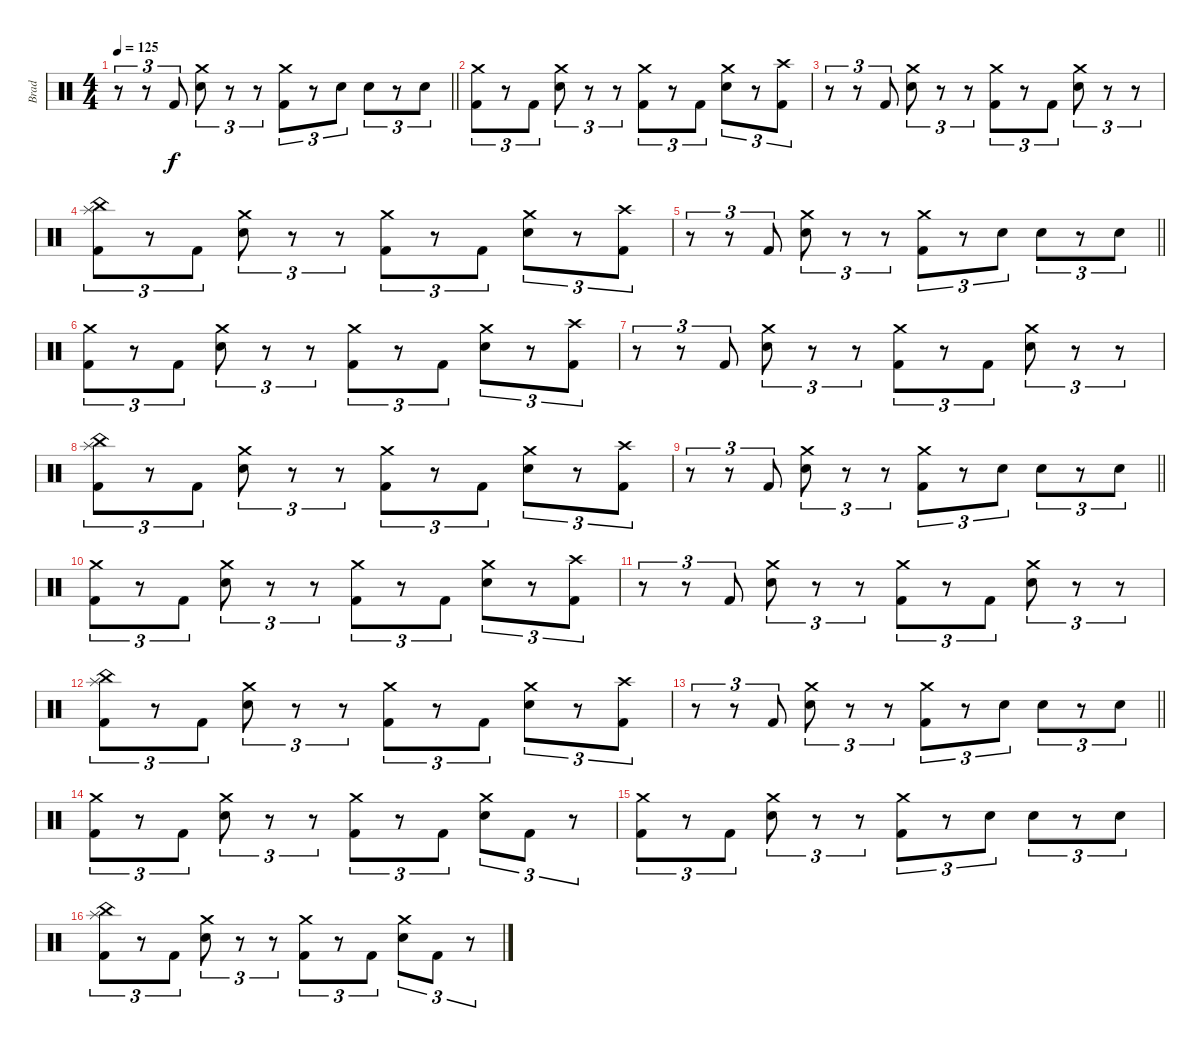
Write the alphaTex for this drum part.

\track ("Brad" "Brad") {instrument percussion}
\staff {score}
\articulation defaults
\ts (4 4)
\tempo 125
\clef neutral
\barLineRight lightlight
\ks c
r.8{tu (3 2) dy f} r.8{tu (3 2)} "Kick (hit) 2".8{tu (3 2)} ("Crash medium (hit)" "Electric Snare (hit)").8{tu (3 2)} r.8{tu (3 2)} r.8{tu (3 2)} ("Crash medium (hit)" "Kick (hit) 2").8{tu (3 2)} r.8{tu (3 2)} "Electric Snare (hit)".8{tu (3 2)} "Electric Snare (hit)".8{tu (3 2)} r.8{tu (3 2)} "Electric Snare (hit)".8{tu (3 2)} |
("Crash medium (hit)" "Kick (hit) 2").8{tu (3 2)} r.8{tu (3 2)} "Kick (hit) 2".8{tu (3 2)} ("Crash medium (hit)" "Electric Snare (hit)").8{tu (3 2)} r.8{tu (3 2)} r.8{tu (3 2)} ("Crash medium (hit)" "Kick (hit) 2").8{tu (3 2)} r.8{tu (3 2)} "Kick (hit) 2".8{tu (3 2)} ("Crash medium (hit)" "Electric Snare (hit)").8{tu (3 2)} r.8{tu (3 2)} ("Crash high (hit)" "Kick (hit) 2").8{tu (3 2)} |
r.8{tu (3 2)} r.8{tu (3 2)} "Kick (hit) 2".8{tu (3 2)} ("Crash medium (hit)" "Electric Snare (hit)").8{tu (3 2)} r.8{tu (3 2)} r.8{tu (3 2)} ("Crash medium (hit)" "Kick (hit) 2").8{tu (3 2)} r.8{tu (3 2)} "Kick (hit) 2".8{tu (3 2)} ("Crash medium (hit)" "Electric Snare (hit)").8{tu (3 2)} r.8{tu (3 2)} r.8{tu (3 2)} |
("Splash (hit)" "China (hit)" "Kick (hit) 2").8{tu (3 2)} r.8{tu (3 2)} "Kick (hit) 2".8{tu (3 2)} ("Crash medium (hit)" "Electric Snare (hit)").8{tu (3 2)} r.8{tu (3 2)} r.8{tu (3 2)} ("Crash medium (hit)" "Kick (hit) 2").8{tu (3 2)} r.8{tu (3 2)} "Kick (hit) 2".8{tu (3 2)} ("Crash medium (hit)" "Electric Snare (hit)").8{tu (3 2)} r.8{tu (3 2)} ("Crash high (hit)" "Kick (hit) 2").8{tu (3 2)} |
\barLineRight lightlight
r.8{tu (3 2)} r.8{tu (3 2)} "Kick (hit) 2".8{tu (3 2)} ("Crash medium (hit)" "Electric Snare (hit)").8{tu (3 2)} r.8{tu (3 2)} r.8{tu (3 2)} ("Crash medium (hit)" "Kick (hit) 2").8{tu (3 2)} r.8{tu (3 2)} "Electric Snare (hit)".8{tu (3 2)} "Electric Snare (hit)".8{tu (3 2)} r.8{tu (3 2)} "Electric Snare (hit)".8{tu (3 2)} |
("Crash medium (hit)" "Kick (hit) 2").8{tu (3 2)} r.8{tu (3 2)} "Kick (hit) 2".8{tu (3 2)} ("Crash medium (hit)" "Electric Snare (hit)").8{tu (3 2)} r.8{tu (3 2)} r.8{tu (3 2)} ("Crash medium (hit)" "Kick (hit) 2").8{tu (3 2)} r.8{tu (3 2)} "Kick (hit) 2".8{tu (3 2)} ("Crash medium (hit)" "Electric Snare (hit)").8{tu (3 2)} r.8{tu (3 2)} ("Crash high (hit)" "Kick (hit) 2").8{tu (3 2)} |
r.8{tu (3 2)} r.8{tu (3 2)} "Kick (hit) 2".8{tu (3 2)} ("Crash medium (hit)" "Electric Snare (hit)").8{tu (3 2)} r.8{tu (3 2)} r.8{tu (3 2)} ("Crash medium (hit)" "Kick (hit) 2").8{tu (3 2)} r.8{tu (3 2)} "Kick (hit) 2".8{tu (3 2)} ("Crash medium (hit)" "Electric Snare (hit)").8{tu (3 2)} r.8{tu (3 2)} r.8{tu (3 2)} |
("Splash (hit)" "China (hit)" "Kick (hit) 2").8{tu (3 2)} r.8{tu (3 2)} "Kick (hit) 2".8{tu (3 2)} ("Crash medium (hit)" "Electric Snare (hit)").8{tu (3 2)} r.8{tu (3 2)} r.8{tu (3 2)} ("Crash medium (hit)" "Kick (hit) 2").8{tu (3 2)} r.8{tu (3 2)} "Kick (hit) 2".8{tu (3 2)} ("Crash medium (hit)" "Electric Snare (hit)").8{tu (3 2)} r.8{tu (3 2)} ("Crash high (hit)" "Kick (hit) 2").8{tu (3 2)} |
\barLineRight lightlight
r.8{tu (3 2)} r.8{tu (3 2)} "Kick (hit) 2".8{tu (3 2)} ("Crash medium (hit)" "Electric Snare (hit)").8{tu (3 2)} r.8{tu (3 2)} r.8{tu (3 2)} ("Crash medium (hit)" "Kick (hit) 2").8{tu (3 2)} r.8{tu (3 2)} "Electric Snare (hit)".8{tu (3 2)} "Electric Snare (hit)".8{tu (3 2)} r.8{tu (3 2)} "Electric Snare (hit)".8{tu (3 2)} |
("Crash medium (hit)" "Kick (hit) 2").8{tu (3 2)} r.8{tu (3 2)} "Kick (hit) 2".8{tu (3 2)} ("Crash medium (hit)" "Electric Snare (hit)").8{tu (3 2)} r.8{tu (3 2)} r.8{tu (3 2)} ("Crash medium (hit)" "Kick (hit) 2").8{tu (3 2)} r.8{tu (3 2)} "Kick (hit) 2".8{tu (3 2)} ("Crash medium (hit)" "Electric Snare (hit)").8{tu (3 2)} r.8{tu (3 2)} ("Crash high (hit)" "Kick (hit) 2").8{tu (3 2)} |
r.8{tu (3 2)} r.8{tu (3 2)} "Kick (hit) 2".8{tu (3 2)} ("Crash medium (hit)" "Electric Snare (hit)").8{tu (3 2)} r.8{tu (3 2)} r.8{tu (3 2)} ("Crash medium (hit)" "Kick (hit) 2").8{tu (3 2)} r.8{tu (3 2)} "Kick (hit) 2".8{tu (3 2)} ("Crash medium (hit)" "Electric Snare (hit)").8{tu (3 2)} r.8{tu (3 2)} r.8{tu (3 2)} |
("Splash (hit)" "China (hit)" "Kick (hit) 2").8{tu (3 2)} r.8{tu (3 2)} "Kick (hit) 2".8{tu (3 2)} ("Crash medium (hit)" "Electric Snare (hit)").8{tu (3 2)} r.8{tu (3 2)} r.8{tu (3 2)} ("Crash medium (hit)" "Kick (hit) 2").8{tu (3 2)} r.8{tu (3 2)} "Kick (hit) 2".8{tu (3 2)} ("Crash medium (hit)" "Electric Snare (hit)").8{tu (3 2)} r.8{tu (3 2)} ("Crash high (hit)" "Kick (hit) 2").8{tu (3 2)} |
\barLineRight lightlight
r.8{tu (3 2)} r.8{tu (3 2)} "Kick (hit) 2".8{tu (3 2)} ("Crash medium (hit)" "Electric Snare (hit)").8{tu (3 2)} r.8{tu (3 2)} r.8{tu (3 2)} ("Crash medium (hit)" "Kick (hit) 2").8{tu (3 2)} r.8{tu (3 2)} "Electric Snare (hit)".8{tu (3 2)} "Electric Snare (hit)".8{tu (3 2)} r.8{tu (3 2)} "Electric Snare (hit)".8{tu (3 2)} |
("Crash medium (hit)" "Kick (hit) 2").8{tu (3 2)} r.8{tu (3 2)} "Kick (hit) 2".8{tu (3 2)} ("Crash medium (hit)" "Electric Snare (hit)").8{tu (3 2)} r.8{tu (3 2)} r.8{tu (3 2)} ("Crash medium (hit)" "Kick (hit) 2").8{tu (3 2)} r.8{tu (3 2)} "Kick (hit) 2".8{tu (3 2)} ("Crash medium (hit)" "Electric Snare (hit)").8{tu (3 2)} "Kick (hit) 2".8{tu (3 2)} r.8{tu (3 2)} |
("Crash medium (hit)" "Kick (hit) 2").8{tu (3 2)} r.8{tu (3 2)} "Kick (hit) 2".8{tu (3 2)} ("Crash medium (hit)" "Electric Snare (hit)").8{tu (3 2)} r.8{tu (3 2)} r.8{tu (3 2)} ("Crash medium (hit)" "Kick (hit) 2").8{tu (3 2)} r.8{tu (3 2)} "Electric Snare (hit)".8{tu (3 2)} "Electric Snare (hit)".8{tu (3 2)} r.8{tu (3 2)} "Electric Snare (hit)".8{tu (3 2)} |
("Splash (hit)" "China (hit)" "Kick (hit) 2").8{tu (3 2)} r.8{tu (3 2)} "Kick (hit) 2".8{tu (3 2)} ("Crash medium (hit)" "Electric Snare (hit)").8{tu (3 2)} r.8{tu (3 2)} r.8{tu (3 2)} ("Crash medium (hit)" "Kick (hit) 2").8{tu (3 2)} r.8{tu (3 2)} "Kick (hit) 2".8{tu (3 2)} ("Crash medium (hit)" "Electric Snare (hit)").8{tu (3 2)} "Kick (hit) 2".8{tu (3 2)} r.8{tu (3 2)}
